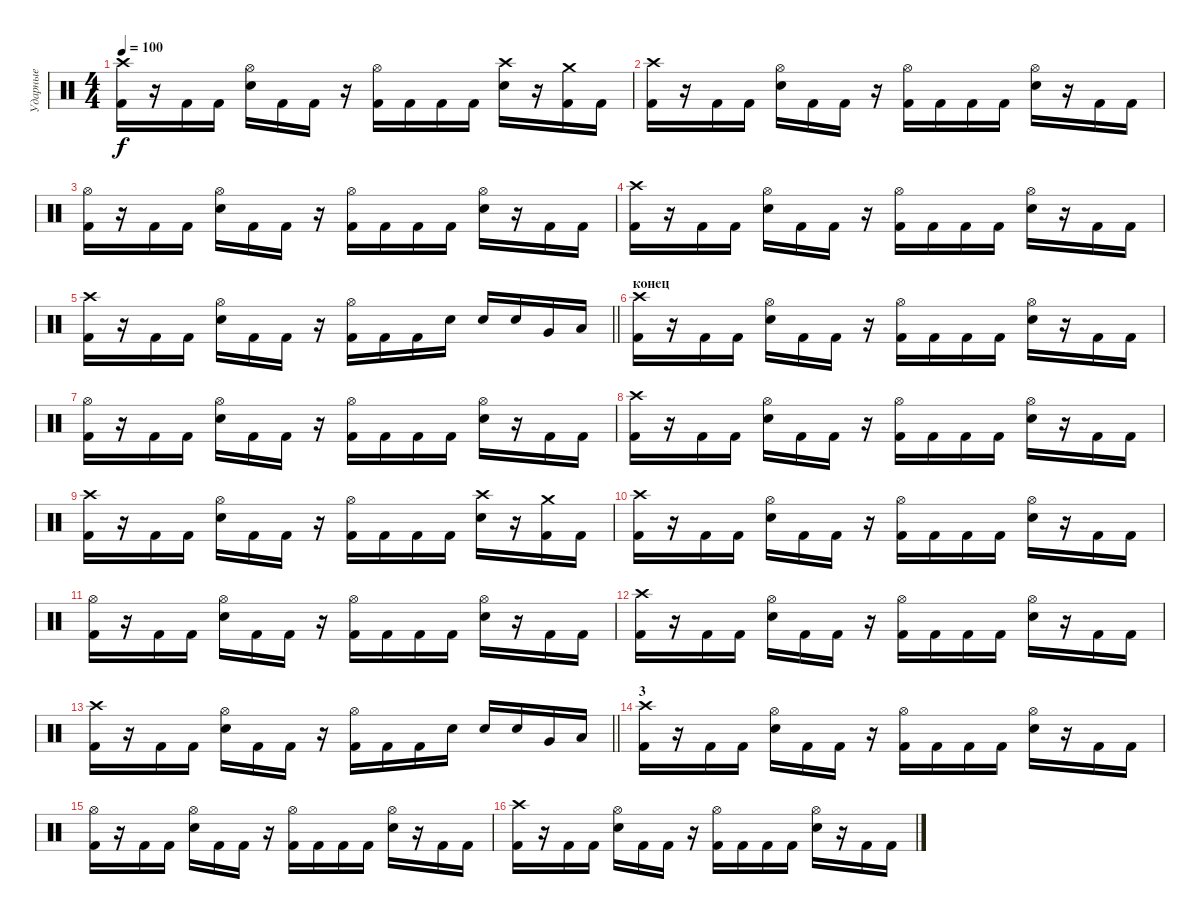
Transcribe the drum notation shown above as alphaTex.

\track ("Ударные" "Ударные") {instrument percussion}
\staff {score}
\articulation defaults
\ts (4 4)
\tempo 100
\clef neutral
\ks c
("Crash high (hit)" "Kick (hit) 2").16{dy f} r.16 "Kick (hit) 2".16 "Kick (hit) 2".16 ("Hi-Hat (open)" "Snare (hit) 2").16 "Kick (hit) 2".16 "Kick (hit) 2".16 r.16 ("Hi-Hat (open)" "Kick (hit) 2").16 "Kick (hit) 2".16 "Kick (hit) 2".16 "Kick (hit) 2".16 ("Crash high (hit)" "Snare (hit) 2").16 r.16 ("Crash medium (hit)" "Kick (hit) 2").16 "Kick (hit) 2".16 |
("Crash high (hit)" "Kick (hit) 2").16 r.16 "Kick (hit) 2".16 "Kick (hit) 2".16 ("Hi-Hat (open)" "Snare (hit) 2").16 "Kick (hit) 2".16 "Kick (hit) 2".16 r.16 ("Hi-Hat (open)" "Kick (hit) 2").16 "Kick (hit) 2".16 "Kick (hit) 2".16 "Kick (hit) 2".16 ("Hi-Hat (open)" "Snare (hit) 2").16 r.16 "Kick (hit) 2".16 "Kick (hit) 2".16 |
("Hi-Hat (open)" "Kick (hit) 2").16 r.16 "Kick (hit) 2".16 "Kick (hit) 2".16 ("Hi-Hat (open)" "Snare (hit) 2").16 "Kick (hit) 2".16 "Kick (hit) 2".16 r.16 ("Hi-Hat (open)" "Kick (hit) 2").16 "Kick (hit) 2".16 "Kick (hit) 2".16 "Kick (hit) 2".16 ("Hi-Hat (open)" "Snare (hit) 2").16 r.16 "Kick (hit) 2".16 "Kick (hit) 2".16 |
("Crash high (hit)" "Kick (hit) 2").16 r.16 "Kick (hit) 2".16 "Kick (hit) 2".16 ("Hi-Hat (open)" "Snare (hit) 2").16 "Kick (hit) 2".16 "Kick (hit) 2".16 r.16 ("Hi-Hat (open)" "Kick (hit) 2").16 "Kick (hit) 2".16 "Kick (hit) 2".16 "Kick (hit) 2".16 ("Hi-Hat (open)" "Snare (hit) 2").16 r.16 "Kick (hit) 2".16 "Kick (hit) 2".16 |
\barLineRight lightlight
("Crash high (hit)" "Kick (hit) 2").16 r.16 "Kick (hit) 2".16 "Kick (hit) 2".16 ("Hi-Hat (open)" "Snare (hit) 2").16 "Kick (hit) 2".16 "Kick (hit) 2".16 r.16 ("Hi-Hat (open)" "Kick (hit) 2").16 "Kick (hit) 2".16 "Kick (hit) 2".16 "Snare (hit) 2".16 "Snare (hit) 2".16 "Snare (hit) 2".16 "Very Low Tom (hit)".16 "Low Tom (hit)".16 |
\section ("" "конец")
("Crash high (hit)" "Kick (hit) 2").16 r.16 "Kick (hit) 2".16 "Kick (hit) 2".16 ("Hi-Hat (open)" "Snare (hit) 2").16 "Kick (hit) 2".16 "Kick (hit) 2".16 r.16 ("Hi-Hat (open)" "Kick (hit) 2").16 "Kick (hit) 2".16 "Kick (hit) 2".16 "Kick (hit) 2".16 ("Hi-Hat (open)" "Snare (hit) 2").16 r.16 "Kick (hit) 2".16 "Kick (hit) 2".16 |
("Hi-Hat (open)" "Kick (hit) 2").16 r.16 "Kick (hit) 2".16 "Kick (hit) 2".16 ("Hi-Hat (open)" "Snare (hit) 2").16 "Kick (hit) 2".16 "Kick (hit) 2".16 r.16 ("Hi-Hat (open)" "Kick (hit) 2").16 "Kick (hit) 2".16 "Kick (hit) 2".16 "Kick (hit) 2".16 ("Hi-Hat (open)" "Snare (hit) 2").16 r.16 "Kick (hit) 2".16 "Kick (hit) 2".16 |
("Crash high (hit)" "Kick (hit) 2").16 r.16 "Kick (hit) 2".16 "Kick (hit) 2".16 ("Hi-Hat (open)" "Snare (hit) 2").16 "Kick (hit) 2".16 "Kick (hit) 2".16 r.16 ("Hi-Hat (open)" "Kick (hit) 2").16 "Kick (hit) 2".16 "Kick (hit) 2".16 "Kick (hit) 2".16 ("Hi-Hat (open)" "Snare (hit) 2").16 r.16 "Kick (hit) 2".16 "Kick (hit) 2".16 |
("Crash high (hit)" "Kick (hit) 2").16 r.16 "Kick (hit) 2".16 "Kick (hit) 2".16 ("Hi-Hat (open)" "Snare (hit) 2").16 "Kick (hit) 2".16 "Kick (hit) 2".16 r.16 ("Hi-Hat (open)" "Kick (hit) 2").16 "Kick (hit) 2".16 "Kick (hit) 2".16 "Kick (hit) 2".16 ("Crash high (hit)" "Snare (hit) 2").16 r.16 ("Crash medium (hit)" "Kick (hit) 2").16 "Kick (hit) 2".16 |
("Crash high (hit)" "Kick (hit) 2").16 r.16 "Kick (hit) 2".16 "Kick (hit) 2".16 ("Hi-Hat (open)" "Snare (hit) 2").16 "Kick (hit) 2".16 "Kick (hit) 2".16 r.16 ("Hi-Hat (open)" "Kick (hit) 2").16 "Kick (hit) 2".16 "Kick (hit) 2".16 "Kick (hit) 2".16 ("Hi-Hat (open)" "Snare (hit) 2").16 r.16 "Kick (hit) 2".16 "Kick (hit) 2".16 |
("Hi-Hat (open)" "Kick (hit) 2").16 r.16 "Kick (hit) 2".16 "Kick (hit) 2".16 ("Hi-Hat (open)" "Snare (hit) 2").16 "Kick (hit) 2".16 "Kick (hit) 2".16 r.16 ("Hi-Hat (open)" "Kick (hit) 2").16 "Kick (hit) 2".16 "Kick (hit) 2".16 "Kick (hit) 2".16 ("Hi-Hat (open)" "Snare (hit) 2").16 r.16 "Kick (hit) 2".16 "Kick (hit) 2".16 |
("Crash high (hit)" "Kick (hit) 2").16 r.16 "Kick (hit) 2".16 "Kick (hit) 2".16 ("Hi-Hat (open)" "Snare (hit) 2").16 "Kick (hit) 2".16 "Kick (hit) 2".16 r.16 ("Hi-Hat (open)" "Kick (hit) 2").16 "Kick (hit) 2".16 "Kick (hit) 2".16 "Kick (hit) 2".16 ("Hi-Hat (open)" "Snare (hit) 2").16 r.16 "Kick (hit) 2".16 "Kick (hit) 2".16 |
\barLineRight lightlight
("Crash high (hit)" "Kick (hit) 2").16 r.16 "Kick (hit) 2".16 "Kick (hit) 2".16 ("Hi-Hat (open)" "Snare (hit) 2").16 "Kick (hit) 2".16 "Kick (hit) 2".16 r.16 ("Hi-Hat (open)" "Kick (hit) 2").16 "Kick (hit) 2".16 "Kick (hit) 2".16 "Snare (hit) 2".16 "Snare (hit) 2".16 "Snare (hit) 2".16 "Very Low Tom (hit)".16 "Low Tom (hit)".16 |
\section ("" "3")
("Crash high (hit)" "Kick (hit) 2").16 r.16 "Kick (hit) 2".16 "Kick (hit) 2".16 ("Hi-Hat (open)" "Snare (hit) 2").16 "Kick (hit) 2".16 "Kick (hit) 2".16 r.16 ("Hi-Hat (open)" "Kick (hit) 2").16 "Kick (hit) 2".16 "Kick (hit) 2".16 "Kick (hit) 2".16 ("Hi-Hat (open)" "Snare (hit) 2").16 r.16 "Kick (hit) 2".16 "Kick (hit) 2".16 |
("Hi-Hat (open)" "Kick (hit) 2").16 r.16 "Kick (hit) 2".16 "Kick (hit) 2".16 ("Hi-Hat (open)" "Snare (hit) 2").16 "Kick (hit) 2".16 "Kick (hit) 2".16 r.16 ("Hi-Hat (open)" "Kick (hit) 2").16 "Kick (hit) 2".16 "Kick (hit) 2".16 "Kick (hit) 2".16 ("Hi-Hat (open)" "Snare (hit) 2").16 r.16 "Kick (hit) 2".16 "Kick (hit) 2".16 |
("Crash high (hit)" "Kick (hit) 2").16 r.16 "Kick (hit) 2".16 "Kick (hit) 2".16 ("Hi-Hat (open)" "Snare (hit) 2").16 "Kick (hit) 2".16 "Kick (hit) 2".16 r.16 ("Hi-Hat (open)" "Kick (hit) 2").16 "Kick (hit) 2".16 "Kick (hit) 2".16 "Kick (hit) 2".16 ("Hi-Hat (open)" "Snare (hit) 2").16 r.16 "Kick (hit) 2".16 "Kick (hit) 2".16
